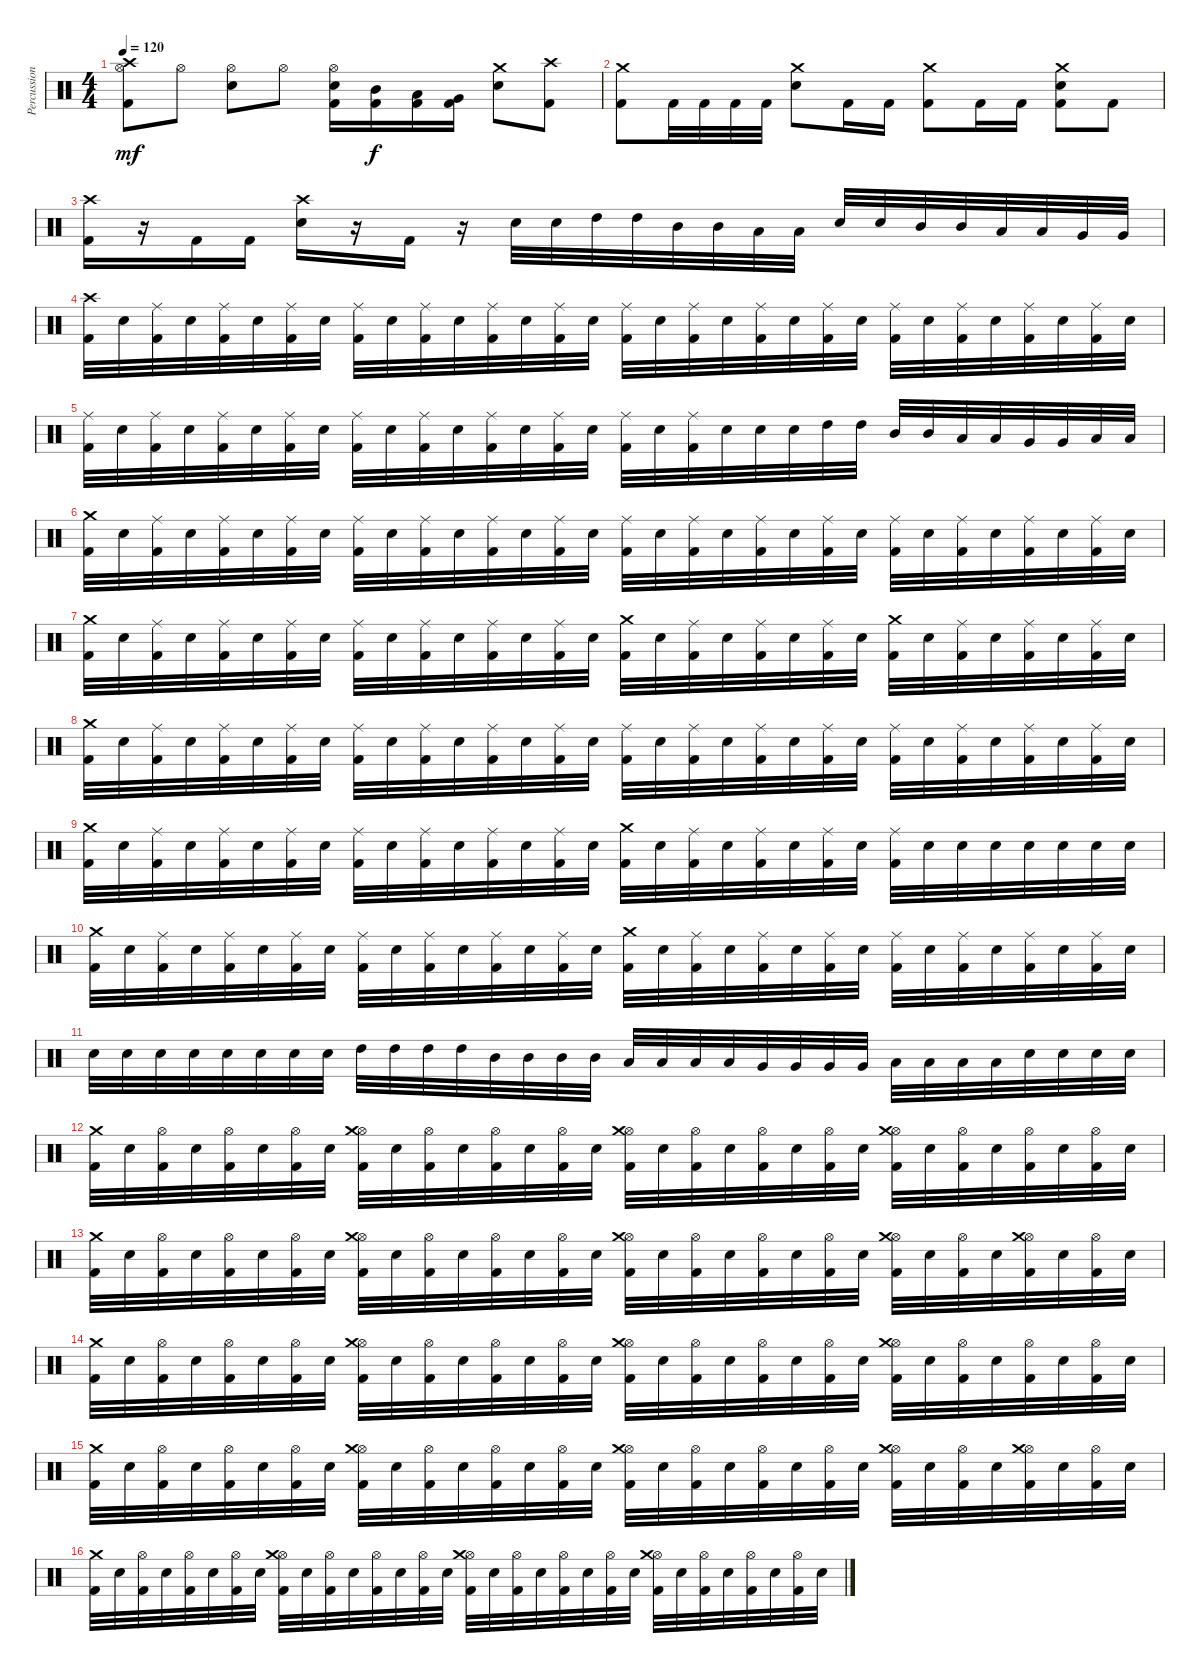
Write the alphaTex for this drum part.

\track ("Percussion" "Percussion") {instrument percussion}
\staff {score}
\articulation defaults
\ts (4 4)
\tempo 120
\clef neutral
\ks c
("Crash high (hit)" "Hi-Hat (open)" "Kick (hit) 2").8{dy mf} "Hi-Hat (open)".8 ("Hi-Hat (open)" "Electric Snare (hit)").8 "Hi-Hat (open)".8 ("Hi-Hat (open)" "Electric Snare (hit)" "Kick (hit) 2").16 ("Mid Tom (hit)" "Kick (hit) 2").16{dy f} ("Low Tom (hit)" "Kick (hit) 2").16 ("Very Low Tom (hit)" "Kick (hit) 2").16 ("Crash medium (hit)" "Electric Snare (hit)").8 ("Crash high (hit)" "Kick (hit) 2").8 |
("Kick (hit) 2" "Crash medium (hit)").8 "Kick (hit) 2".32 "Kick (hit) 2".32 "Kick (hit) 2".32 "Kick (hit) 2".32 ("Electric Snare (hit)" "Crash medium (hit)").8 "Kick (hit) 2".16 "Kick (hit) 2".16 ("Kick (hit) 2" "Crash medium (hit)").8 "Kick (hit) 2".16 "Kick (hit) 2".16 ("Kick (hit) 2" "Electric Snare (hit)" "Crash medium (hit)").8 "Kick (hit) 2".8 |
("Kick (hit) 2" "Crash high (hit)").16 r.16 "Kick (hit) 2".16 "Kick (hit) 2".16 ("Electric Snare (hit)" "Crash high (hit)").16 r.16 "Kick (hit) 2".16 r.16 "Electric Snare (hit)".32 "Electric Snare (hit)".32 "High Tom (hit)".32 "High Tom (hit)".32 "Mid Tom (hit)".32 "Mid Tom (hit)".32 "Low Tom (hit)".32 "Low Tom (hit)".32 "Electric Snare (hit)".32 "Electric Snare (hit)".32 "Mid Tom (hit)".32 "Mid Tom (hit)".32 "Low Tom (hit)".32 "Low Tom (hit)".32 "Very Low Tom (hit)".32 "Very Low Tom (hit)".32 |
("Kick (hit) 2" "Crash high (hit)").32 "Electric Snare (hit)".32 ("Kick (hit) 2" "Ride (middle)").32 "Electric Snare (hit)".32 ("Kick (hit) 2" "Ride (middle)").32 "Electric Snare (hit)".32 ("Kick (hit) 2" "Ride (middle)").32 "Electric Snare (hit)".32 ("Kick (hit) 2" "Ride (middle)").32 "Electric Snare (hit)".32 ("Kick (hit) 2" "Ride (middle)").32 "Electric Snare (hit)".32 ("Kick (hit) 2" "Ride (middle)").32 "Electric Snare (hit)".32 ("Kick (hit) 2" "Ride (middle)").32 "Electric Snare (hit)".32 ("Kick (hit) 2" "Ride (middle)").32 "Electric Snare (hit)".32 ("Kick (hit) 2" "Ride (middle)").32 "Electric Snare (hit)".32 ("Kick (hit) 2" "Ride (middle)").32 "Electric Snare (hit)".32 ("Kick (hit) 2" "Ride (middle)").32 "Electric Snare (hit)".32 ("Kick (hit) 2" "Ride (middle)").32 "Electric Snare (hit)".32 ("Kick (hit) 2" "Ride (middle)").32 "Electric Snare (hit)".32 ("Kick (hit) 2" "Ride (middle)").32 "Electric Snare (hit)".32 ("Kick (hit) 2" "Ride (middle)").32 "Electric Snare (hit)".32 |
("Kick (hit) 2" "Ride (middle)").32 "Electric Snare (hit)".32 ("Kick (hit) 2" "Ride (middle)").32 "Electric Snare (hit)".32 ("Kick (hit) 2" "Ride (middle)").32 "Electric Snare (hit)".32 ("Kick (hit) 2" "Ride (middle)").32 "Electric Snare (hit)".32 ("Kick (hit) 2" "Ride (middle)").32 "Electric Snare (hit)".32 ("Kick (hit) 2" "Ride (middle)").32 "Electric Snare (hit)".32 ("Kick (hit) 2" "Ride (middle)").32 "Electric Snare (hit)".32 ("Kick (hit) 2" "Ride (middle)").32 "Electric Snare (hit)".32 ("Kick (hit) 2" "Ride (middle)").32 "Electric Snare (hit)".32 ("Kick (hit) 2" "Ride (middle)").32 "Electric Snare (hit)".32 "Electric Snare (hit)".32 "Electric Snare (hit)".32 "High Tom (hit)".32 "High Tom (hit)".32 "Mid Tom (hit)".32 "Mid Tom (hit)".32 "Low Tom (hit)".32 "Low Tom (hit)".32 "Very Low Tom (hit)".32 "Very Low Tom (hit)".32 "Low Floor Tom (hit)".32 "Low Floor Tom (hit)".32 |
("Kick (hit) 2" "Crash medium (hit)").32 "Electric Snare (hit)".32 ("Kick (hit) 2" "Ride (middle)").32 "Electric Snare (hit)".32 ("Kick (hit) 2" "Ride (middle)").32 "Electric Snare (hit)".32 ("Kick (hit) 2" "Ride (middle)").32 "Electric Snare (hit)".32 ("Kick (hit) 2" "Ride (middle)").32 "Electric Snare (hit)".32 ("Kick (hit) 2" "Ride (middle)").32 "Electric Snare (hit)".32 ("Kick (hit) 2" "Ride (middle)").32 "Electric Snare (hit)".32 ("Kick (hit) 2" "Ride (middle)").32 "Electric Snare (hit)".32 ("Kick (hit) 2" "Ride (middle)").32 "Electric Snare (hit)".32 ("Kick (hit) 2" "Ride (middle)").32 "Electric Snare (hit)".32 ("Kick (hit) 2" "Ride (middle)").32 "Electric Snare (hit)".32 ("Kick (hit) 2" "Ride (middle)").32 "Electric Snare (hit)".32 ("Kick (hit) 2" "Ride (middle)").32 "Electric Snare (hit)".32 ("Kick (hit) 2" "Ride (middle)").32 "Electric Snare (hit)".32 ("Kick (hit) 2" "Ride (middle)").32 "Electric Snare (hit)".32 ("Kick (hit) 2" "Ride (middle)").32 "Electric Snare (hit)".32 |
("Kick (hit) 2" "Crash medium (hit)").32 "Electric Snare (hit)".32 ("Kick (hit) 2" "Ride (middle)").32 "Electric Snare (hit)".32 ("Kick (hit) 2" "Ride (middle)").32 "Electric Snare (hit)".32 ("Kick (hit) 2" "Ride (middle)").32 "Electric Snare (hit)".32 ("Kick (hit) 2" "Ride (middle)").32 "Electric Snare (hit)".32 ("Kick (hit) 2" "Ride (middle)").32 "Electric Snare (hit)".32 ("Kick (hit) 2" "Ride (middle)").32 "Electric Snare (hit)".32 ("Kick (hit) 2" "Ride (middle)").32 "Electric Snare (hit)".32 ("Kick (hit) 2" "Crash medium (hit)").32 "Electric Snare (hit)".32 ("Kick (hit) 2" "Ride (middle)").32 "Electric Snare (hit)".32 ("Kick (hit) 2" "Ride (middle)").32 "Electric Snare (hit)".32 ("Kick (hit) 2" "Ride (middle)").32 "Electric Snare (hit)".32 ("Kick (hit) 2" "Crash medium (hit)").32 "Electric Snare (hit)".32 ("Kick (hit) 2" "Ride (middle)").32 "Electric Snare (hit)".32 ("Kick (hit) 2" "Ride (middle)").32 "Electric Snare (hit)".32 ("Kick (hit) 2" "Ride (middle)").32 "Electric Snare (hit)".32 |
("Kick (hit) 2" "Crash medium (hit)").32 "Electric Snare (hit)".32 ("Kick (hit) 2" "Ride (middle)").32 "Electric Snare (hit)".32 ("Kick (hit) 2" "Ride (middle)").32 "Electric Snare (hit)".32 ("Kick (hit) 2" "Ride (middle)").32 "Electric Snare (hit)".32 ("Kick (hit) 2" "Ride (middle)").32 "Electric Snare (hit)".32 ("Kick (hit) 2" "Ride (middle)").32 "Electric Snare (hit)".32 ("Kick (hit) 2" "Ride (middle)").32 "Electric Snare (hit)".32 ("Kick (hit) 2" "Ride (middle)").32 "Electric Snare (hit)".32 ("Kick (hit) 2" "Ride (middle)").32 "Electric Snare (hit)".32 ("Kick (hit) 2" "Ride (middle)").32 "Electric Snare (hit)".32 ("Kick (hit) 2" "Ride (middle)").32 "Electric Snare (hit)".32 ("Kick (hit) 2" "Ride (middle)").32 "Electric Snare (hit)".32 ("Kick (hit) 2" "Ride (middle)").32 "Electric Snare (hit)".32 ("Kick (hit) 2" "Ride (middle)").32 "Electric Snare (hit)".32 ("Kick (hit) 2" "Ride (middle)").32 "Electric Snare (hit)".32 ("Kick (hit) 2" "Ride (middle)").32 "Electric Snare (hit)".32 |
("Kick (hit) 2" "Crash medium (hit)").32 "Electric Snare (hit)".32 ("Kick (hit) 2" "Ride (middle)").32 "Electric Snare (hit)".32 ("Kick (hit) 2" "Ride (middle)").32 "Electric Snare (hit)".32 ("Kick (hit) 2" "Ride (middle)").32 "Electric Snare (hit)".32 ("Kick (hit) 2" "Ride (middle)").32 "Electric Snare (hit)".32 ("Kick (hit) 2" "Ride (middle)").32 "Electric Snare (hit)".32 ("Kick (hit) 2" "Ride (middle)").32 "Electric Snare (hit)".32 ("Kick (hit) 2" "Ride (middle)").32 "Electric Snare (hit)".32 ("Kick (hit) 2" "Crash medium (hit)").32 "Electric Snare (hit)".32 ("Kick (hit) 2" "Ride (middle)").32 "Electric Snare (hit)".32 ("Kick (hit) 2" "Ride (middle)").32 "Electric Snare (hit)".32 ("Kick (hit) 2" "Ride (middle)").32 "Electric Snare (hit)".32 ("Kick (hit) 2" "Ride (middle)").32 "Electric Snare (hit)".32 "Electric Snare (hit)".32 "Electric Snare (hit)".32 "Electric Snare (hit)".32 "Electric Snare (hit)".32 "Electric Snare (hit)".32 "Electric Snare (hit)".32 |
("Kick (hit) 2" "Crash medium (hit)").32 "Electric Snare (hit)".32 ("Kick (hit) 2" "Ride (middle)").32 "Electric Snare (hit)".32 ("Kick (hit) 2" "Ride (middle)").32 "Electric Snare (hit)".32 ("Kick (hit) 2" "Ride (middle)").32 "Electric Snare (hit)".32 ("Kick (hit) 2" "Ride (middle)").32 "Electric Snare (hit)".32 ("Kick (hit) 2" "Ride (middle)").32 "Electric Snare (hit)".32 ("Kick (hit) 2" "Ride (middle)").32 "Electric Snare (hit)".32 ("Kick (hit) 2" "Ride (middle)").32 "Electric Snare (hit)".32 ("Kick (hit) 2" "Crash medium (hit)").32 "Electric Snare (hit)".32 ("Kick (hit) 2" "Ride (middle)").32 "Electric Snare (hit)".32 ("Kick (hit) 2" "Ride (middle)").32 "Electric Snare (hit)".32 ("Kick (hit) 2" "Ride (middle)").32 "Electric Snare (hit)".32 ("Kick (hit) 2" "Ride (middle)").32 "Electric Snare (hit)".32 ("Kick (hit) 2" "Ride (middle)").32 "Electric Snare (hit)".32 ("Kick (hit) 2" "Ride (middle)").32 "Electric Snare (hit)".32 ("Kick (hit) 2" "Ride (middle)").32 "Electric Snare (hit)".32 |
"Electric Snare (hit)".32 "Electric Snare (hit)".32 "Electric Snare (hit)".32 "Electric Snare (hit)".32 "Electric Snare (hit)".32 "Electric Snare (hit)".32 "Electric Snare (hit)".32 "Electric Snare (hit)".32 "High Tom (hit)".32 "High Tom (hit)".32 "High Tom (hit)".32 "High Tom (hit)".32 "Mid Tom (hit)".32 "Mid Tom (hit)".32 "Mid Tom (hit)".32 "Mid Tom (hit)".32 "Low Tom (hit)".32 "Low Tom (hit)".32 "Low Tom (hit)".32 "Low Tom (hit)".32 "Very Low Tom (hit)".32 "Very Low Tom (hit)".32 "Very Low Tom (hit)".32 "Very Low Tom (hit)".32 "Low Floor Tom (hit)".32 "Low Floor Tom (hit)".32 "Low Floor Tom (hit)".32 "Low Floor Tom (hit)".32 "Electric Snare (hit)".32 "Electric Snare (hit)".32 "Electric Snare (hit)".32 "Electric Snare (hit)".32 |
("Kick (hit) 2" "Crash medium (hit)").32 "Electric Snare (hit)".32 ("Kick (hit) 2" "Hi-Hat (open)").32 "Electric Snare (hit)".32 ("Kick (hit) 2" "Hi-Hat (open)").32 "Electric Snare (hit)".32 ("Kick (hit) 2" "Hi-Hat (open)").32 "Electric Snare (hit)".32 ("Kick (hit) 2" "Hi-Hat (open)" "Crash medium (hit)").32 "Electric Snare (hit)".32 ("Kick (hit) 2" "Hi-Hat (open)").32 "Electric Snare (hit)".32 ("Kick (hit) 2" "Hi-Hat (open)").32 "Electric Snare (hit)".32 ("Kick (hit) 2" "Hi-Hat (open)").32 "Electric Snare (hit)".32 ("Kick (hit) 2" "Hi-Hat (open)" "Crash medium (hit)").32 "Electric Snare (hit)".32 ("Kick (hit) 2" "Hi-Hat (open)").32 "Electric Snare (hit)".32 ("Kick (hit) 2" "Hi-Hat (open)").32 "Electric Snare (hit)".32 ("Kick (hit) 2" "Hi-Hat (open)").32 "Electric Snare (hit)".32 ("Kick (hit) 2" "Hi-Hat (open)" "Crash medium (hit)").32 "Electric Snare (hit)".32 ("Kick (hit) 2" "Hi-Hat (open)").32 "Electric Snare (hit)".32 ("Kick (hit) 2" "Hi-Hat (open)").32 "Electric Snare (hit)".32 ("Kick (hit) 2" "Hi-Hat (open)").32 "Electric Snare (hit)".32 |
("Kick (hit) 2" "Crash medium (hit)").32 "Electric Snare (hit)".32 ("Kick (hit) 2" "Hi-Hat (open)").32 "Electric Snare (hit)".32 ("Kick (hit) 2" "Hi-Hat (open)").32 "Electric Snare (hit)".32 ("Kick (hit) 2" "Hi-Hat (open)").32 "Electric Snare (hit)".32 ("Kick (hit) 2" "Hi-Hat (open)" "Crash medium (hit)").32 "Electric Snare (hit)".32 ("Kick (hit) 2" "Hi-Hat (open)").32 "Electric Snare (hit)".32 ("Kick (hit) 2" "Hi-Hat (open)").32 "Electric Snare (hit)".32 ("Kick (hit) 2" "Hi-Hat (open)").32 "Electric Snare (hit)".32 ("Kick (hit) 2" "Hi-Hat (open)" "Crash medium (hit)").32 "Electric Snare (hit)".32 ("Kick (hit) 2" "Hi-Hat (open)").32 "Electric Snare (hit)".32 ("Kick (hit) 2" "Hi-Hat (open)").32 "Electric Snare (hit)".32 ("Kick (hit) 2" "Hi-Hat (open)").32 "Electric Snare (hit)".32 ("Kick (hit) 2" "Hi-Hat (open)" "Crash medium (hit)").32 "Electric Snare (hit)".32 ("Kick (hit) 2" "Hi-Hat (open)").32 "Electric Snare (hit)".32 ("Kick (hit) 2" "Hi-Hat (open)" "Crash medium (hit)").32 "Electric Snare (hit)".32 ("Kick (hit) 2" "Hi-Hat (open)").32 "Electric Snare (hit)".32 |
("Kick (hit) 2" "Crash medium (hit)").32 "Electric Snare (hit)".32 ("Kick (hit) 2" "Hi-Hat (open)").32 "Electric Snare (hit)".32 ("Kick (hit) 2" "Hi-Hat (open)").32 "Electric Snare (hit)".32 ("Kick (hit) 2" "Hi-Hat (open)").32 "Electric Snare (hit)".32 ("Kick (hit) 2" "Hi-Hat (open)" "Crash medium (hit)").32 "Electric Snare (hit)".32 ("Kick (hit) 2" "Hi-Hat (open)").32 "Electric Snare (hit)".32 ("Kick (hit) 2" "Hi-Hat (open)").32 "Electric Snare (hit)".32 ("Kick (hit) 2" "Hi-Hat (open)").32 "Electric Snare (hit)".32 ("Kick (hit) 2" "Hi-Hat (open)" "Crash medium (hit)").32 "Electric Snare (hit)".32 ("Kick (hit) 2" "Hi-Hat (open)").32 "Electric Snare (hit)".32 ("Kick (hit) 2" "Hi-Hat (open)").32 "Electric Snare (hit)".32 ("Kick (hit) 2" "Hi-Hat (open)").32 "Electric Snare (hit)".32 ("Kick (hit) 2" "Hi-Hat (open)" "Crash medium (hit)").32 "Electric Snare (hit)".32 ("Kick (hit) 2" "Hi-Hat (open)").32 "Electric Snare (hit)".32 ("Kick (hit) 2" "Hi-Hat (open)").32 "Electric Snare (hit)".32 ("Kick (hit) 2" "Hi-Hat (open)").32 "Electric Snare (hit)".32 |
("Kick (hit) 2" "Crash medium (hit)").32 "Electric Snare (hit)".32 ("Kick (hit) 2" "Hi-Hat (open)").32 "Electric Snare (hit)".32 ("Kick (hit) 2" "Hi-Hat (open)").32 "Electric Snare (hit)".32 ("Kick (hit) 2" "Hi-Hat (open)").32 "Electric Snare (hit)".32 ("Kick (hit) 2" "Hi-Hat (open)" "Crash medium (hit)").32 "Electric Snare (hit)".32 ("Kick (hit) 2" "Hi-Hat (open)").32 "Electric Snare (hit)".32 ("Kick (hit) 2" "Hi-Hat (open)").32 "Electric Snare (hit)".32 ("Kick (hit) 2" "Hi-Hat (open)").32 "Electric Snare (hit)".32 ("Kick (hit) 2" "Hi-Hat (open)" "Crash medium (hit)").32 "Electric Snare (hit)".32 ("Kick (hit) 2" "Hi-Hat (open)").32 "Electric Snare (hit)".32 ("Kick (hit) 2" "Hi-Hat (open)").32 "Electric Snare (hit)".32 ("Kick (hit) 2" "Hi-Hat (open)").32 "Electric Snare (hit)".32 ("Kick (hit) 2" "Hi-Hat (open)" "Crash medium (hit)").32 "Electric Snare (hit)".32 ("Kick (hit) 2" "Hi-Hat (open)").32 "Electric Snare (hit)".32 ("Kick (hit) 2" "Hi-Hat (open)" "Crash medium (hit)").32 "Electric Snare (hit)".32 ("Kick (hit) 2" "Hi-Hat (open)").32 "Electric Snare (hit)".32 |
("Kick (hit) 2" "Crash medium (hit)").32 "Electric Snare (hit)".32 ("Kick (hit) 2" "Hi-Hat (open)").32 "Electric Snare (hit)".32 ("Kick (hit) 2" "Hi-Hat (open)").32 "Electric Snare (hit)".32 ("Kick (hit) 2" "Hi-Hat (open)").32 "Electric Snare (hit)".32 ("Kick (hit) 2" "Hi-Hat (open)" "Crash medium (hit)").32 "Electric Snare (hit)".32 ("Kick (hit) 2" "Hi-Hat (open)").32 "Electric Snare (hit)".32 ("Kick (hit) 2" "Hi-Hat (open)").32 "Electric Snare (hit)".32 ("Kick (hit) 2" "Hi-Hat (open)").32 "Electric Snare (hit)".32 ("Kick (hit) 2" "Hi-Hat (open)" "Crash medium (hit)").32 "Electric Snare (hit)".32 ("Kick (hit) 2" "Hi-Hat (open)").32 "Electric Snare (hit)".32 ("Kick (hit) 2" "Hi-Hat (open)").32 "Electric Snare (hit)".32 ("Kick (hit) 2" "Hi-Hat (open)").32 "Electric Snare (hit)".32 ("Kick (hit) 2" "Hi-Hat (open)" "Crash medium (hit)").32 "Electric Snare (hit)".32 ("Kick (hit) 2" "Hi-Hat (open)").32 "Electric Snare (hit)".32 ("Kick (hit) 2" "Hi-Hat (open)").32 "Electric Snare (hit)".32 ("Kick (hit) 2" "Hi-Hat (open)").32 "Electric Snare (hit)".32
